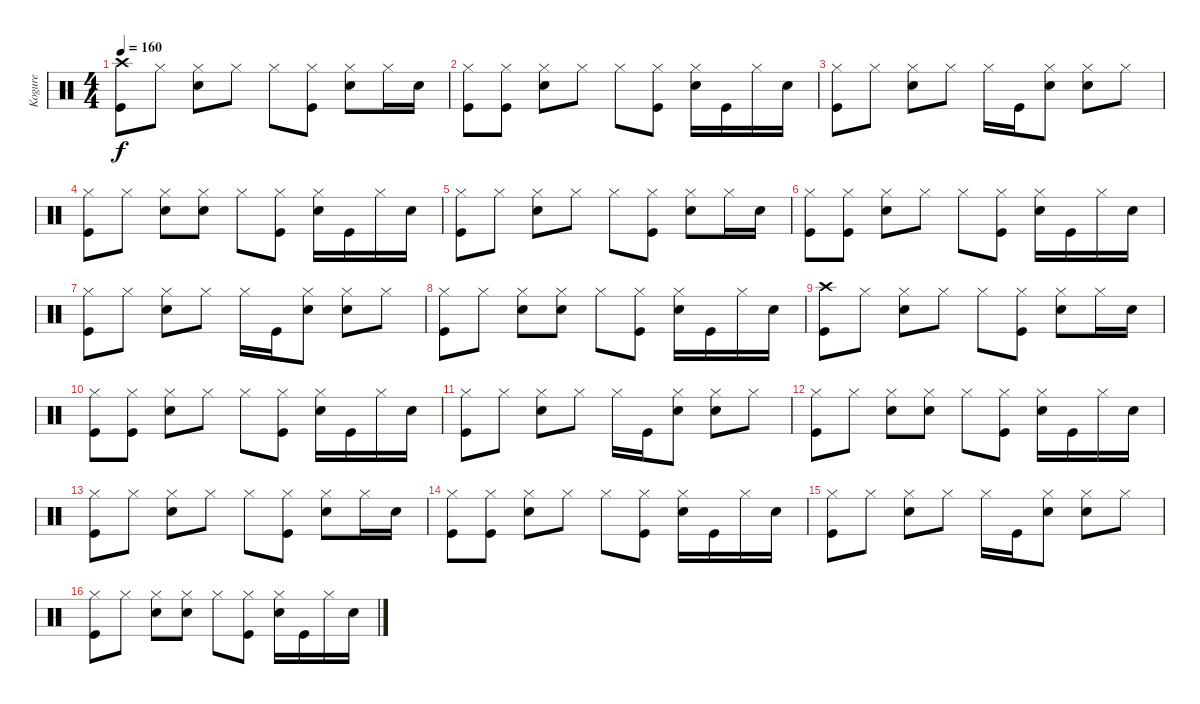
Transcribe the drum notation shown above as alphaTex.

\track ("Kogure" "Kogure") {instrument percussion}
\staff {score}
\articulation defaults
\ts (4 4)
\tempo 160
\clef neutral
\ks c
("Crash high (hit)" "Kick (hit)").8{dy f} "Hi-Hat (closed)".8 ("Hi-Hat (closed)" "Snare (hit) 2").8 "Hi-Hat (closed)".8 "Hi-Hat (closed)".8 ("Hi-Hat (closed)" "Kick (hit)").8 ("Hi-Hat (closed)" "Snare (hit) 2").8 "Hi-Hat (closed)".16 "Snare (hit) 2".16 |
("Hi-Hat (closed)" "Kick (hit)").8 ("Hi-Hat (closed)" "Kick (hit)").8 ("Hi-Hat (closed)" "Snare (hit) 2").8 "Hi-Hat (closed)".8 "Hi-Hat (closed)".8 ("Hi-Hat (closed)" "Kick (hit)").8 ("Hi-Hat (closed)" "Snare (hit) 2").16 "Kick (hit)".16 "Hi-Hat (closed)".16 "Snare (hit) 2".16 |
("Hi-Hat (closed)" "Kick (hit)").8 "Hi-Hat (closed)".8 ("Hi-Hat (closed)" "Snare (hit) 2").8 "Hi-Hat (closed)".8 "Hi-Hat (closed)".16 "Kick (hit)".16 ("Hi-Hat (closed)" "Snare (hit) 2").8 ("Hi-Hat (closed)" "Snare (hit) 2").8 "Hi-Hat (closed)".8 |
("Hi-Hat (closed)" "Kick (hit)").8 "Hi-Hat (closed)".8 ("Hi-Hat (closed)" "Snare (hit) 2").8 ("Hi-Hat (closed)" "Snare (hit) 2").8 "Hi-Hat (closed)".8 ("Hi-Hat (closed)" "Kick (hit)").8 ("Hi-Hat (closed)" "Snare (hit) 2").16 "Kick (hit)".16 "Hi-Hat (closed)".16 "Snare (hit) 2".16 |
("Hi-Hat (closed)" "Kick (hit)").8 "Hi-Hat (closed)".8 ("Hi-Hat (closed)" "Snare (hit) 2").8 "Hi-Hat (closed)".8 "Hi-Hat (closed)".8 ("Hi-Hat (closed)" "Kick (hit)").8 ("Hi-Hat (closed)" "Snare (hit) 2").8 "Hi-Hat (closed)".16 "Snare (hit) 2".16 |
("Hi-Hat (closed)" "Kick (hit)").8 ("Hi-Hat (closed)" "Kick (hit)").8 ("Hi-Hat (closed)" "Snare (hit) 2").8 "Hi-Hat (closed)".8 "Hi-Hat (closed)".8 ("Hi-Hat (closed)" "Kick (hit)").8 ("Hi-Hat (closed)" "Snare (hit) 2").16 "Kick (hit)".16 "Hi-Hat (closed)".16 "Snare (hit) 2".16 |
("Hi-Hat (closed)" "Kick (hit)").8 "Hi-Hat (closed)".8 ("Hi-Hat (closed)" "Snare (hit) 2").8 "Hi-Hat (closed)".8 "Hi-Hat (closed)".16 "Kick (hit)".16 ("Hi-Hat (closed)" "Snare (hit) 2").8 ("Hi-Hat (closed)" "Snare (hit) 2").8 "Hi-Hat (closed)".8 |
("Hi-Hat (closed)" "Kick (hit)").8 "Hi-Hat (closed)".8 ("Hi-Hat (closed)" "Snare (hit) 2").8 ("Hi-Hat (closed)" "Snare (hit) 2").8 "Hi-Hat (closed)".8 ("Hi-Hat (closed)" "Kick (hit)").8 ("Hi-Hat (closed)" "Snare (hit) 2").16 "Kick (hit)".16 "Hi-Hat (closed)".16 "Snare (hit) 2".16 |
("Crash high (hit)" "Kick (hit)").8 "Hi-Hat (closed)".8 ("Hi-Hat (closed)" "Snare (hit) 2").8 "Hi-Hat (closed)".8 "Hi-Hat (closed)".8 ("Hi-Hat (closed)" "Kick (hit)").8 ("Hi-Hat (closed)" "Snare (hit) 2").8 "Hi-Hat (closed)".16 "Snare (hit) 2".16 |
("Hi-Hat (closed)" "Kick (hit)").8 ("Hi-Hat (closed)" "Kick (hit)").8 ("Hi-Hat (closed)" "Snare (hit) 2").8 "Hi-Hat (closed)".8 "Hi-Hat (closed)".8 ("Hi-Hat (closed)" "Kick (hit)").8 ("Hi-Hat (closed)" "Snare (hit) 2").16 "Kick (hit)".16 "Hi-Hat (closed)".16 "Snare (hit) 2".16 |
("Hi-Hat (closed)" "Kick (hit)").8 "Hi-Hat (closed)".8 ("Hi-Hat (closed)" "Snare (hit) 2").8 "Hi-Hat (closed)".8 "Hi-Hat (closed)".16 "Kick (hit)".16 ("Hi-Hat (closed)" "Snare (hit) 2").8 ("Hi-Hat (closed)" "Snare (hit) 2").8 "Hi-Hat (closed)".8 |
("Hi-Hat (closed)" "Kick (hit)").8 "Hi-Hat (closed)".8 ("Hi-Hat (closed)" "Snare (hit) 2").8 ("Hi-Hat (closed)" "Snare (hit) 2").8 "Hi-Hat (closed)".8 ("Hi-Hat (closed)" "Kick (hit)").8 ("Hi-Hat (closed)" "Snare (hit) 2").16 "Kick (hit)".16 "Hi-Hat (closed)".16 "Snare (hit) 2".16 |
("Hi-Hat (closed)" "Kick (hit)").8 "Hi-Hat (closed)".8 ("Hi-Hat (closed)" "Snare (hit) 2").8 "Hi-Hat (closed)".8 "Hi-Hat (closed)".8 ("Hi-Hat (closed)" "Kick (hit)").8 ("Hi-Hat (closed)" "Snare (hit) 2").8 "Hi-Hat (closed)".16 "Snare (hit) 2".16 |
("Hi-Hat (closed)" "Kick (hit)").8 ("Hi-Hat (closed)" "Kick (hit)").8 ("Hi-Hat (closed)" "Snare (hit) 2").8 "Hi-Hat (closed)".8 "Hi-Hat (closed)".8 ("Hi-Hat (closed)" "Kick (hit)").8 ("Hi-Hat (closed)" "Snare (hit) 2").16 "Kick (hit)".16 "Hi-Hat (closed)".16 "Snare (hit) 2".16 |
("Hi-Hat (closed)" "Kick (hit)").8 "Hi-Hat (closed)".8 ("Hi-Hat (closed)" "Snare (hit) 2").8 "Hi-Hat (closed)".8 "Hi-Hat (closed)".16 "Kick (hit)".16 ("Hi-Hat (closed)" "Snare (hit) 2").8 ("Hi-Hat (closed)" "Snare (hit) 2").8 "Hi-Hat (closed)".8 |
("Hi-Hat (closed)" "Kick (hit)").8 "Hi-Hat (closed)".8 ("Hi-Hat (closed)" "Snare (hit) 2").8 ("Hi-Hat (closed)" "Snare (hit) 2").8 "Hi-Hat (closed)".8 ("Hi-Hat (closed)" "Kick (hit)").8 ("Hi-Hat (closed)" "Snare (hit) 2").16 "Kick (hit)".16 "Hi-Hat (closed)".16 "Snare (hit) 2".16
